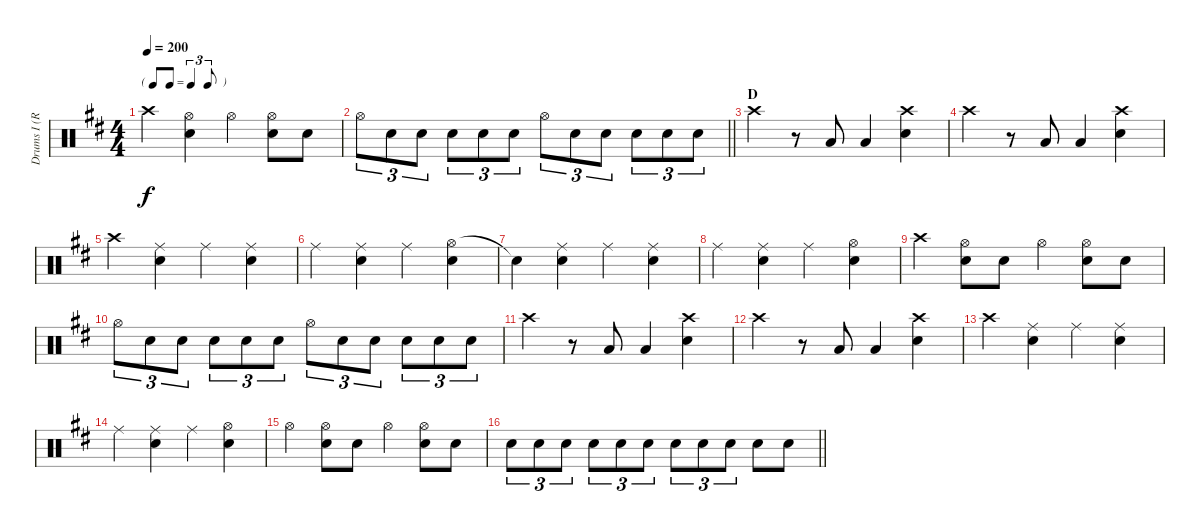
\track ("Drums I (Ruka)" "Drums I (R") {instrument percussion}
\staff {score}
\articulation defaults
\ts (4 4)
\tf triplet8th
\tempo 200
\clef neutral
\ks d "Crash high (hit)".4{dy f}
("Hi-Hat (open)" "Snare (hit) 2").4 "Hi-Hat (open)".4 ("Hi-Hat (open)" "Snare (hit) 2").8 "Snare (hit) 2".8 |
\barLineRight lightlight "Hi-Hat (open)".8{tu (3 2)} "Snare (hit) 2".8{tu (3 2)} "Snare (hit) 2".8{tu (3 2)} "Snare (hit) 2".8{tu (3 2)} "Snare (hit) 2".8{tu (3 2)} "Snare (hit) 2".8{tu (3 2)} "Hi-Hat (open)".8{tu (3 2)} "Snare (hit) 2".8{tu (3 2)} "Snare (hit) 2".8{tu (3 2)} "Snare (hit) 2".8{tu (3 2)} "Snare (hit) 2".8{tu (3 2)} "Snare (hit) 2".8{tu (3 2)}
|
\section ("" "D")
"Crash high (hit)".4 r.8 "Low Tom (hit)".8 "Low Floor Tom (hit)".4 ("Crash high (hit)" "Snare (hit) 2").4 |
"Crash high (hit)".4 r.8 "Low Tom (hit)".8 "Low Floor Tom (hit)".4 ("Crash high (hit)" "Snare (hit) 2").4 |
"Crash high (hit)".4 ("Ride (middle)" "Snare (hit) 2").4 "Ride (middle)".4 ("Ride (middle)" "Snare (hit) 2").4 |
"Ride (middle)".4 ("Ride (middle)" "Snare (hit) 2").4 "Ride (middle)".4 ("Hi-Hat (open)" "Snare (hit) 2").4 |
"Snare (hit)"{t}.4 ("Ride (middle)" "Snare (hit) 2").4 "Ride (middle)".4 ("Ride (middle)" "Snare (hit) 2").4 |
"Ride (middle)".4 ("Ride (middle)" "Snare (hit) 2").4 "Ride (middle)".4 ("Hi-Hat (open)" "Snare (hit) 2").4 |
"Crash high (hit)".4 ("Hi-Hat (open)" "Snare (hit) 2").8 "Snare (hit) 2".8 "Hi-Hat (open)".4 ("Hi-Hat (open)" "Snare (hit) 2").8 "Snare (hit) 2".8 |
"Hi-Hat (open)".8{tu (3 2)} "Snare (hit) 2".8{tu (3 2)} "Snare (hit) 2".8{tu (3 2)} "Snare (hit) 2".8{tu (3 2)} "Snare (hit) 2".8{tu (3 2)} "Snare (hit) 2".8{tu (3 2)} "Hi-Hat (open)".8{tu (3 2)} "Snare (hit) 2".8{tu (3 2)} "Snare (hit) 2".8{tu (3 2)} "Snare (hit) 2".8{tu (3 2)} "Snare (hit) 2".8{tu (3 2)} "Snare (hit) 2".8{tu (3 2)} |
"Crash high (hit)".4 r.8 "Low Tom (hit)".8 "Low Tom (hit)".4 ("Crash high (hit)" "Snare (hit) 2").4 |
"Crash high (hit)".4 r.8 "Low Tom (hit)".8 "Low Tom (hit)".4 ("Crash high (hit)" "Snare (hit) 2").4 |
"Crash high (hit)".4 ("Ride (middle)" "Snare (hit) 2").4 "Ride (middle)".4 ("Ride (middle)" "Snare (hit) 2").4 |
"Ride (middle)".4 ("Ride (middle)" "Snare (hit) 2").4 "Ride (middle)".4 ("Hi-Hat (open)" "Snare (hit) 2").4 |
"Hi-Hat (open)".4 ("Hi-Hat (open)" "Snare (hit) 2").8 "Snare (hit) 2".8 "Hi-Hat (open)".4 ("Hi-Hat (open)" "Snare (hit) 2").8 "Snare (hit) 2".8 |
\barLineRight lightlight "Snare (hit) 2".8{tu (3 2)} "Snare (hit) 2".8{tu (3 2)} "Snare (hit) 2".8{tu (3 2)} "Snare (hit) 2".8{tu (3 2)} "Snare (hit) 2".8{tu (3 2)} "Snare (hit) 2".8{tu (3 2)} "Snare (hit) 2".8{tu (3 2)} "Snare (hit) 2".8{tu (3 2)} "Snare (hit) 2".8{tu (3 2)} "Snare (hit) 2".8 "Snare (hit) 2".8
